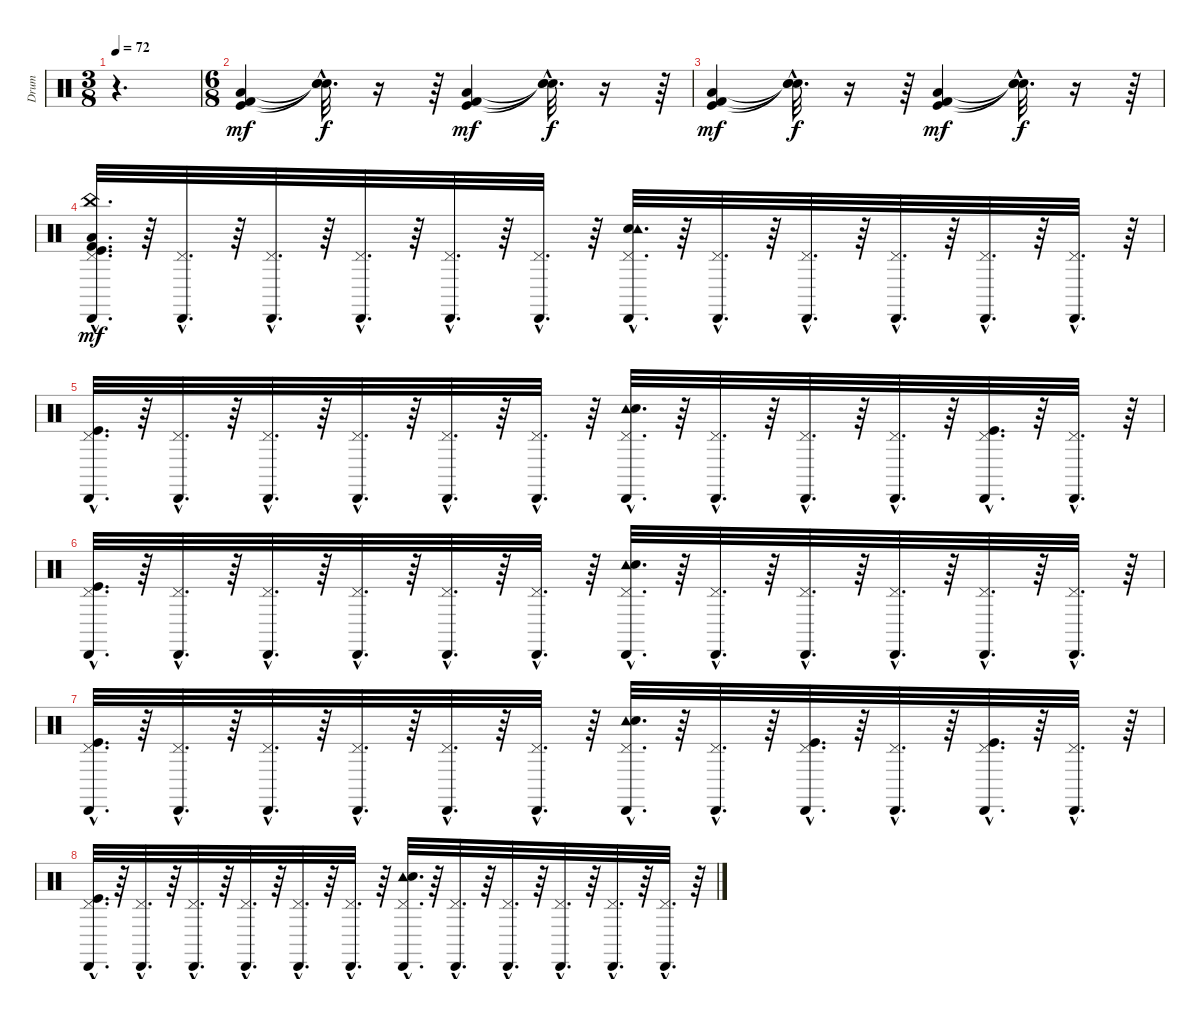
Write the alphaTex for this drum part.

\track ("Drum" "Drum") {instrument percussion}
\staff {score}
\articulation defaults
\ts (3 8)
\tempo 72
\clef neutral
\ks c
r.4{d dy mf} |
\ts (6 8)
("Low Tom (hit)" "Kick (hit)" "Kick (hit) 2").4 ("Snare (hit)"{hac t} "Snare (hit)"{hac t} "Snare (hit)"{hac t}).32{d dy f} r.16 r.64 ("Low Tom (hit)" "Kick (hit) 2" "Kick (hit)").4{dy mf} ("Snare (hit)"{hac t} "Snare (hit)"{hac t} "Snare (hit)"{hac t}).32{d dy f} r.16 r.64 |
("Low Tom (hit)" "Kick (hit)" "Kick (hit) 2").4{dy mf} ("Snare (hit)"{hac t} "Snare (hit)"{hac t} "Snare (hit)"{hac t}).32{d dy f} r.16 r.64 ("Low Tom (hit)" "Kick (hit) 2" "Kick (hit)").4{dy mf} ("Snare (hit)"{hac t} "Snare (hit)"{hac t} "Snare (hit)"{hac t}).32{d dy f} r.16 r.64 |
("China (hit)"{hac} "Low Tom (hit)"{hac} "Kick (hit) 2"{hac} "Kick (hit)"{hac} "Pedal Hi-Hat (hit)"{hac} "Cabasa (hit)"{hac}).32{d dy mf} r.64 ("Pedal Hi-Hat (hit)"{hac} "Cabasa (hit)"{hac}).32{d} r.64 ("Pedal Hi-Hat (hit)"{hac} "Cabasa (hit)"{hac}).32{d} r.64 ("Pedal Hi-Hat (hit)"{hac} "Cabasa (hit)"{hac}).32{d} r.64 ("Pedal Hi-Hat (hit)"{hac} "Cabasa (hit)"{hac}).32{d} r.64 ("Pedal Hi-Hat (hit)"{hac} "Cabasa (hit)"{hac}).32{d} r.64 ("Electric Snare (hit)"{hac} "Tambourine (hit)"{hac} "Pedal Hi-Hat (hit)"{hac} "Cabasa (hit)"{hac}).32{d} r.64 ("Pedal Hi-Hat (hit)"{hac} "Cabasa (hit)"{hac}).32{d} r.64 ("Pedal Hi-Hat (hit)"{hac} "Cabasa (hit)"{hac}).32{d} r.64 ("Pedal Hi-Hat (hit)"{hac} "Cabasa (hit)"{hac}).32{d} r.64 ("Pedal Hi-Hat (hit)"{hac} "Cabasa (hit)"{hac}).32{d} r.64 ("Pedal Hi-Hat (hit)"{hac} "Cabasa (hit)"{hac}).32{d} r.64 |
("Cabasa (hit)"{hac} "Pedal Hi-Hat (hit)"{hac} "Kick (hit)"{hac}).32{d} r.64 ("Cabasa (hit)"{hac} "Pedal Hi-Hat (hit)"{hac}).32{d} r.64 ("Cabasa (hit)"{hac} "Pedal Hi-Hat (hit)"{hac}).32{d} r.64 ("Cabasa (hit)"{hac} "Pedal Hi-Hat (hit)"{hac}).32{d} r.64 ("Cabasa (hit)"{hac} "Pedal Hi-Hat (hit)"{hac}).32{d} r.64 ("Cabasa (hit)"{hac} "Pedal Hi-Hat (hit)"{hac}).32{d} r.64 ("Cabasa (hit)"{hac} "Pedal Hi-Hat (hit)"{hac} "Tambourine (hit)"{hac} "Electric Snare (hit)"{hac}).32{d} r.64 ("Cabasa (hit)"{hac} "Pedal Hi-Hat (hit)"{hac}).32{d} r.64 ("Cabasa (hit)"{hac} "Pedal Hi-Hat (hit)"{hac}).32{d} r.64 ("Cabasa (hit)"{hac} "Pedal Hi-Hat (hit)"{hac}).32{d} r.64 ("Kick (hit)"{hac} "Cabasa (hit)"{hac} "Pedal Hi-Hat (hit)"{hac}).32{d} r.64 ("Cabasa (hit)"{hac} "Pedal Hi-Hat (hit)"{hac}).32{d} r.64 |
("Cabasa (hit)"{hac} "Pedal Hi-Hat (hit)"{hac} "Kick (hit)"{hac}).32{d} r.64 ("Cabasa (hit)"{hac} "Pedal Hi-Hat (hit)"{hac}).32{d} r.64 ("Cabasa (hit)"{hac} "Pedal Hi-Hat (hit)"{hac}).32{d} r.64 ("Cabasa (hit)"{hac} "Pedal Hi-Hat (hit)"{hac}).32{d} r.64 ("Cabasa (hit)"{hac} "Pedal Hi-Hat (hit)"{hac}).32{d} r.64 ("Cabasa (hit)"{hac} "Pedal Hi-Hat (hit)"{hac}).32{d} r.64 ("Cabasa (hit)"{hac} "Pedal Hi-Hat (hit)"{hac} "Tambourine (hit)"{hac} "Electric Snare (hit)"{hac}).32{d} r.64 ("Cabasa (hit)"{hac} "Pedal Hi-Hat (hit)"{hac}).32{d} r.64 ("Cabasa (hit)"{hac} "Pedal Hi-Hat (hit)"{hac}).32{d} r.64 ("Cabasa (hit)"{hac} "Pedal Hi-Hat (hit)"{hac}).32{d} r.64 ("Cabasa (hit)"{hac} "Pedal Hi-Hat (hit)"{hac}).32{d} r.64 ("Cabasa (hit)"{hac} "Pedal Hi-Hat (hit)"{hac}).32{d} r.64 |
("Cabasa (hit)"{hac} "Pedal Hi-Hat (hit)"{hac} "Kick (hit)"{hac}).32{d} r.64 ("Cabasa (hit)"{hac} "Pedal Hi-Hat (hit)"{hac}).32{d} r.64 ("Cabasa (hit)"{hac} "Pedal Hi-Hat (hit)"{hac}).32{d} r.64 ("Cabasa (hit)"{hac} "Pedal Hi-Hat (hit)"{hac}).32{d} r.64 ("Cabasa (hit)"{hac} "Pedal Hi-Hat (hit)"{hac}).32{d} r.64 ("Cabasa (hit)"{hac} "Pedal Hi-Hat (hit)"{hac}).32{d} r.64 ("Cabasa (hit)"{hac} "Pedal Hi-Hat (hit)"{hac} "Tambourine (hit)"{hac} "Electric Snare (hit)"{hac}).32{d} r.64 ("Cabasa (hit)"{hac} "Pedal Hi-Hat (hit)"{hac}).32{d} r.64 ("Kick (hit)"{hac} "Cabasa (hit)"{hac} "Pedal Hi-Hat (hit)"{hac}).32{d} r.64 ("Cabasa (hit)"{hac} "Pedal Hi-Hat (hit)"{hac}).32{d} r.64 ("Kick (hit)"{hac} "Cabasa (hit)"{hac} "Pedal Hi-Hat (hit)"{hac}).32{d} r.64 ("Cabasa (hit)"{hac} "Pedal Hi-Hat (hit)"{hac}).32{d} r.64 |
("Cabasa (hit)"{hac} "Pedal Hi-Hat (hit)"{hac} "Kick (hit)"{hac}).32{d} r.64 ("Cabasa (hit)"{hac} "Pedal Hi-Hat (hit)"{hac}).32{d} r.64 ("Cabasa (hit)"{hac} "Pedal Hi-Hat (hit)"{hac}).32{d} r.64 ("Cabasa (hit)"{hac} "Pedal Hi-Hat (hit)"{hac}).32{d} r.64 ("Cabasa (hit)"{hac} "Pedal Hi-Hat (hit)"{hac}).32{d} r.64 ("Cabasa (hit)"{hac} "Pedal Hi-Hat (hit)"{hac}).32{d} r.64 ("Cabasa (hit)"{hac} "Pedal Hi-Hat (hit)"{hac} "Tambourine (hit)"{hac} "Electric Snare (hit)"{hac}).32{d} r.64 ("Cabasa (hit)"{hac} "Pedal Hi-Hat (hit)"{hac}).32{d} r.64 ("Cabasa (hit)"{hac} "Pedal Hi-Hat (hit)"{hac}).32{d} r.64 ("Cabasa (hit)"{hac} "Pedal Hi-Hat (hit)"{hac}).32{d} r.64 ("Cabasa (hit)"{hac} "Pedal Hi-Hat (hit)"{hac}).32{d} r.64 ("Cabasa (hit)"{hac} "Pedal Hi-Hat (hit)"{hac}).32{d} r.64
